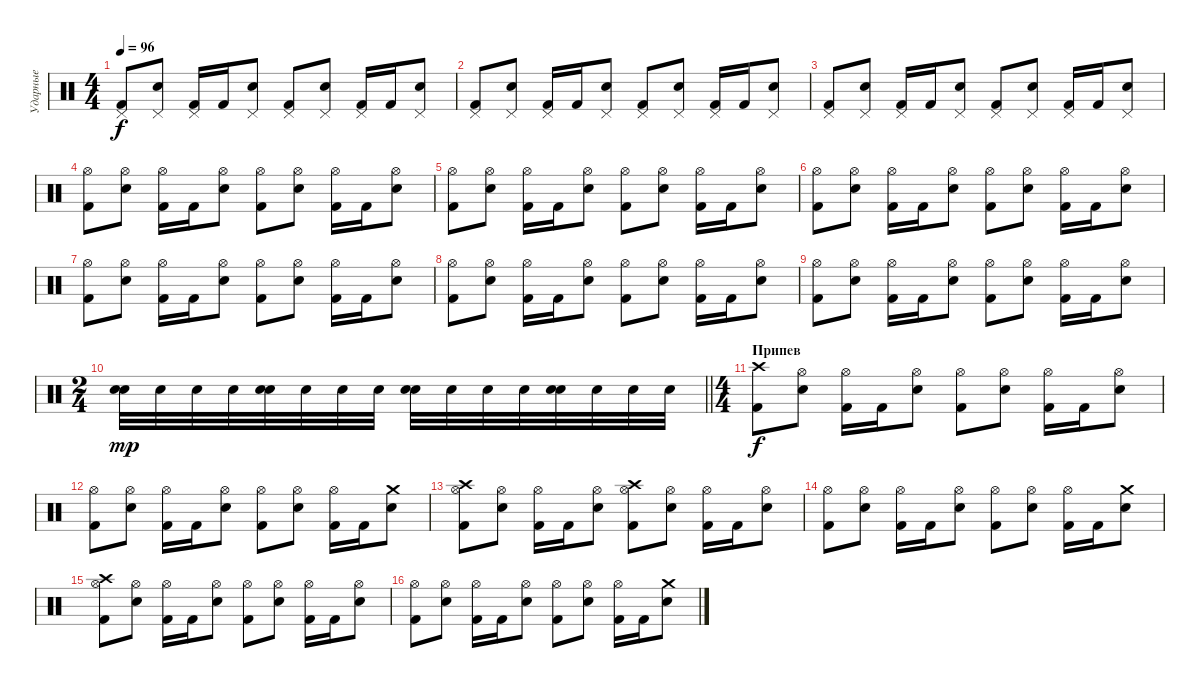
\track ("Ударные" "Ударные") {instrument percussion}
\staff {score}
\articulation defaults
\ts (4 4)
\tempo 96
\clef neutral
\ks c
("Pedal Hi-Hat (hit)" "Kick (hit) 2").8{dy f} ("Pedal Hi-Hat (hit)" "Electric Snare (hit)").8 ("Pedal Hi-Hat (hit)" "Kick (hit) 2").16 "Kick (hit) 2".16 ("Pedal Hi-Hat (hit)" "Electric Snare (hit)").8 ("Pedal Hi-Hat (hit)" "Kick (hit) 2").8 ("Pedal Hi-Hat (hit)" "Electric Snare (hit)").8 ("Pedal Hi-Hat (hit)" "Kick (hit) 2").16 "Kick (hit) 2".16 ("Pedal Hi-Hat (hit)" "Electric Snare (hit)").8 |
("Pedal Hi-Hat (hit)" "Kick (hit) 2").8 ("Pedal Hi-Hat (hit)" "Electric Snare (hit)").8 ("Pedal Hi-Hat (hit)" "Kick (hit) 2").16 "Kick (hit) 2".16 ("Pedal Hi-Hat (hit)" "Electric Snare (hit)").8 ("Pedal Hi-Hat (hit)" "Kick (hit) 2").8 ("Pedal Hi-Hat (hit)" "Electric Snare (hit)").8 ("Pedal Hi-Hat (hit)" "Kick (hit) 2").16 "Kick (hit) 2".16 ("Pedal Hi-Hat (hit)" "Electric Snare (hit)").8 |
("Pedal Hi-Hat (hit)" "Kick (hit) 2").8 ("Pedal Hi-Hat (hit)" "Electric Snare (hit)").8 ("Pedal Hi-Hat (hit)" "Kick (hit) 2").16 "Kick (hit) 2".16 ("Pedal Hi-Hat (hit)" "Electric Snare (hit)").8 ("Pedal Hi-Hat (hit)" "Kick (hit) 2").8 ("Pedal Hi-Hat (hit)" "Electric Snare (hit)").8 ("Pedal Hi-Hat (hit)" "Kick (hit) 2").16 "Kick (hit) 2".16 ("Pedal Hi-Hat (hit)" "Electric Snare (hit)").8 |
("Hi-Hat (open)" "Kick (hit) 2").8 ("Hi-Hat (open)" "Electric Snare (hit)").8 ("Hi-Hat (open)" "Kick (hit) 2").16 "Kick (hit) 2".16 ("Hi-Hat (open)" "Electric Snare (hit)").8 ("Hi-Hat (open)" "Kick (hit) 2").8 ("Hi-Hat (open)" "Electric Snare (hit)").8 ("Hi-Hat (open)" "Kick (hit) 2").16 "Kick (hit) 2".16 ("Hi-Hat (open)" "Electric Snare (hit)").8 |
("Hi-Hat (open)" "Kick (hit) 2").8 ("Hi-Hat (open)" "Electric Snare (hit)").8 ("Hi-Hat (open)" "Kick (hit) 2").16 "Kick (hit) 2".16 ("Hi-Hat (open)" "Electric Snare (hit)").8 ("Hi-Hat (open)" "Kick (hit) 2").8 ("Hi-Hat (open)" "Electric Snare (hit)").8 ("Hi-Hat (open)" "Kick (hit) 2").16 "Kick (hit) 2".16 ("Hi-Hat (open)" "Electric Snare (hit)").8 |
("Hi-Hat (open)" "Kick (hit) 2").8 ("Hi-Hat (open)" "Electric Snare (hit)").8 ("Hi-Hat (open)" "Kick (hit) 2").16 "Kick (hit) 2".16 ("Hi-Hat (open)" "Electric Snare (hit)").8 ("Hi-Hat (open)" "Kick (hit) 2").8 ("Hi-Hat (open)" "Electric Snare (hit)").8 ("Hi-Hat (open)" "Kick (hit) 2").16 "Kick (hit) 2".16 ("Hi-Hat (open)" "Electric Snare (hit)").8 |
("Hi-Hat (open)" "Kick (hit) 2").8 ("Hi-Hat (open)" "Electric Snare (hit)").8 ("Hi-Hat (open)" "Kick (hit) 2").16 "Kick (hit) 2".16 ("Hi-Hat (open)" "Electric Snare (hit)").8 ("Hi-Hat (open)" "Kick (hit) 2").8 ("Hi-Hat (open)" "Electric Snare (hit)").8 ("Hi-Hat (open)" "Kick (hit) 2").16 "Kick (hit) 2".16 ("Hi-Hat (open)" "Electric Snare (hit)").8 |
("Hi-Hat (open)" "Kick (hit) 2").8 ("Hi-Hat (open)" "Electric Snare (hit)").8 ("Hi-Hat (open)" "Kick (hit) 2").16 "Kick (hit) 2".16 ("Hi-Hat (open)" "Electric Snare (hit)").8 ("Hi-Hat (open)" "Kick (hit) 2").8 ("Hi-Hat (open)" "Electric Snare (hit)").8 ("Hi-Hat (open)" "Kick (hit) 2").16 "Kick (hit) 2".16 ("Hi-Hat (open)" "Electric Snare (hit)").8 |
("Hi-Hat (open)" "Kick (hit) 2").8 ("Hi-Hat (open)" "Electric Snare (hit)").8 ("Hi-Hat (open)" "Kick (hit) 2").16 "Kick (hit) 2".16 ("Hi-Hat (open)" "Electric Snare (hit)").8 ("Hi-Hat (open)" "Kick (hit) 2").8 ("Hi-Hat (open)" "Electric Snare (hit)").8 ("Hi-Hat (open)" "Kick (hit) 2").16 "Kick (hit) 2".16 ("Hi-Hat (open)" "Electric Snare (hit)").8 |
\ts (2 4)
\barLineRight lightlight
("Electric Snare (hit)" "Electric Snare (hit)").32{dy mp} "Electric Snare (hit)".32 "Electric Snare (hit)".32 "Electric Snare (hit)".32 ("Electric Snare (hit)" "Electric Snare (hit)").32 "Electric Snare (hit)".32 "Electric Snare (hit)".32 "Electric Snare (hit)".32 ("Electric Snare (hit)" "Electric Snare (hit)").32 "Electric Snare (hit)".32 "Electric Snare (hit)".32 "Electric Snare (hit)".32 ("Electric Snare (hit)" "Electric Snare (hit)").32 "Electric Snare (hit)".32 "Electric Snare (hit)".32 "Electric Snare (hit)".32 |
\ts (4 4)
\section ("" "Припев")
("Crash high (hit)" "Kick (hit) 2").8{dy f} ("Hi-Hat (open)" "Electric Snare (hit)").8 ("Hi-Hat (open)" "Kick (hit) 2").16 "Kick (hit) 2".16 ("Hi-Hat (open)" "Electric Snare (hit)").8 ("Hi-Hat (open)" "Kick (hit) 2").8 ("Hi-Hat (open)" "Electric Snare (hit)").8 ("Hi-Hat (open)" "Kick (hit) 2").16 "Kick (hit) 2".16 ("Hi-Hat (open)" "Electric Snare (hit)").8 |
("Hi-Hat (open)" "Kick (hit) 2").8 ("Hi-Hat (open)" "Electric Snare (hit)").8 ("Hi-Hat (open)" "Kick (hit) 2").16 "Kick (hit) 2".16 ("Hi-Hat (open)" "Electric Snare (hit)").8 ("Hi-Hat (open)" "Kick (hit) 2").8 ("Hi-Hat (open)" "Electric Snare (hit)").8 ("Hi-Hat (open)" "Kick (hit) 2").16 "Kick (hit) 2".16 ("Crash medium (hit)" "Electric Snare (hit)").8 |
("Hi-Hat (open)" "Crash high (hit)" "Kick (hit) 2").8 ("Hi-Hat (open)" "Electric Snare (hit)").8 ("Hi-Hat (open)" "Kick (hit) 2").16 "Kick (hit) 2".16 ("Hi-Hat (open)" "Electric Snare (hit)").8 ("Hi-Hat (open)" "Crash high (hit)" "Kick (hit) 2").8 ("Hi-Hat (open)" "Electric Snare (hit)").8 ("Hi-Hat (open)" "Kick (hit) 2").16 "Kick (hit) 2".16 ("Hi-Hat (open)" "Electric Snare (hit)").8 |
("Hi-Hat (open)" "Kick (hit) 2").8 ("Hi-Hat (open)" "Electric Snare (hit)").8 ("Hi-Hat (open)" "Kick (hit) 2").16 "Kick (hit) 2".16 ("Hi-Hat (open)" "Electric Snare (hit)").8 ("Hi-Hat (open)" "Kick (hit) 2").8 ("Hi-Hat (open)" "Electric Snare (hit)").8 ("Hi-Hat (open)" "Kick (hit) 2").16 "Kick (hit) 2".16 ("Crash medium (hit)" "Electric Snare (hit)").8 |
("Hi-Hat (open)" "Crash high (hit)" "Kick (hit) 2").8 ("Hi-Hat (open)" "Electric Snare (hit)").8 ("Hi-Hat (open)" "Kick (hit) 2").16 "Kick (hit) 2".16 ("Hi-Hat (open)" "Electric Snare (hit)").8 ("Hi-Hat (open)" "Kick (hit) 2").8 ("Hi-Hat (open)" "Electric Snare (hit)").8 ("Hi-Hat (open)" "Kick (hit) 2").16 "Kick (hit) 2".16 ("Hi-Hat (open)" "Electric Snare (hit)").8 |
("Hi-Hat (open)" "Kick (hit) 2").8 ("Hi-Hat (open)" "Electric Snare (hit)").8 ("Hi-Hat (open)" "Kick (hit) 2").16 "Kick (hit) 2".16 ("Hi-Hat (open)" "Electric Snare (hit)").8 ("Hi-Hat (open)" "Kick (hit) 2").8 ("Hi-Hat (open)" "Electric Snare (hit)").8 ("Hi-Hat (open)" "Kick (hit) 2").16 "Kick (hit) 2".16 ("Crash medium (hit)" "Electric Snare (hit)").8
